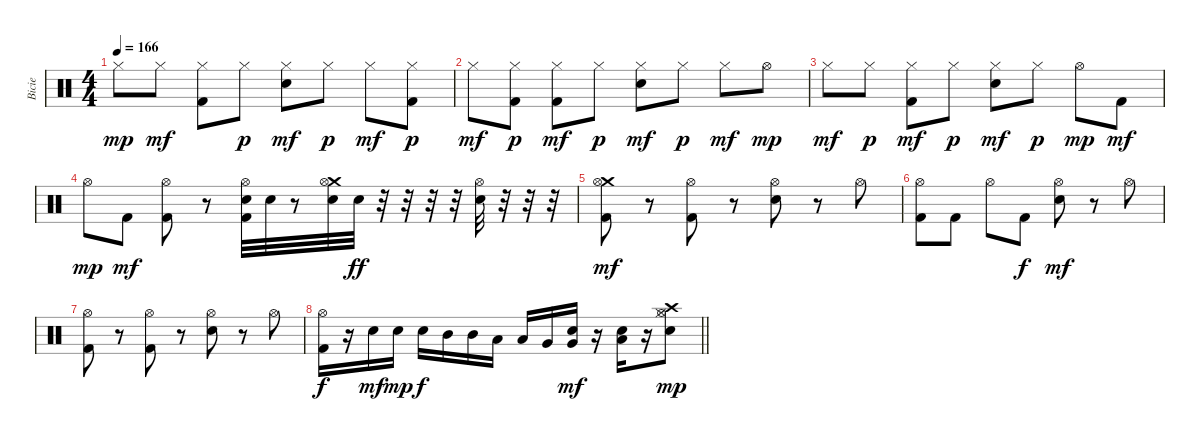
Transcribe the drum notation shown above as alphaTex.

\track ("Bicie" "Bicie") {instrument percussion}
\staff {score}
\articulation defaults
\ts (4 4)
\tempo 166
\clef neutral
\ks c "Hi-Hat (closed)".8{dy mp} "Hi-Hat (closed)".8{dy mf}
("Kick (hit) 2" "Hi-Hat (closed)").8 "Hi-Hat (closed)".8{dy p} ("Electric Snare (hit)" "Hi-Hat (closed)").8{dy mf} "Hi-Hat (closed)".8{dy p} "Hi-Hat (closed)".8{dy mf} ("Kick (hit) 2" "Hi-Hat (closed)").8{dy p} |
"Hi-Hat (closed)".8{dy mf} ("Kick (hit) 2" "Hi-Hat (closed)").8{dy p} ("Kick (hit) 2" "Hi-Hat (closed)").8{dy mf} "Hi-Hat (closed)".8{dy p} ("Electric Snare (hit)" "Hi-Hat (closed)").8{dy mf} "Hi-Hat (closed)".8{dy p} "Hi-Hat (closed)".8{dy mf} "Hi-Hat (open)".8{dy mp} |
"Hi-Hat (closed)".8{dy mf} "Hi-Hat (closed)".8{dy p} ("Kick (hit) 2" "Hi-Hat (closed)").8{dy mf} "Hi-Hat (closed)".8{dy p} ("Electric Snare (hit)" "Hi-Hat (closed)").8{dy mf} "Hi-Hat (closed)".8{dy p} "Hi-Hat (open)".8{dy mp} "Kick (hit) 2".8{dy mf} |
"Hi-Hat (open)".8{dy mp} "Kick (hit) 2".8{dy mf} ("Kick (hit) 2" "Hi-Hat (open)").8 r.8 ("Kick (hit) 2" "Electric Snare (hit)" "Hi-Hat (open)").32 "Electric Snare (hit)".32 r.8 ("Electric Snare (hit)" "Crash medium (hit)" "Hi-Hat (open)").32 "Electric Snare (hit)".32{dy ff} r.32 r.32 r.32 r.32 ("Electric Snare (hit)" "Hi-Hat (open)").32 r.32 r.32 r.32 |
("Crash medium (hit)" "Kick (hit) 2" "Hi-Hat (open)").8{dy mf} r.8 ("Kick (hit) 2" "Hi-Hat (open)").8 r.8 ("Electric Snare (hit)" "Hi-Hat (open)").8 r.8 "Hi-Hat (open)".8 |
("Kick (hit) 2" "Hi-Hat (open)").8 "Kick (hit) 2".8 "Hi-Hat (open)".8 "Kick (hit) 2".8{dy f} ("Electric Snare (hit)" "Hi-Hat (open)").8{dy mf} r.8 "Hi-Hat (open)".8 |
("Kick (hit) 2" "Hi-Hat (open)").8 r.8 ("Kick (hit) 2" "Hi-Hat (open)").8 r.8 ("Electric Snare (hit)" "Hi-Hat (open)").8 r.8 "Hi-Hat (open)".8 |
\barLineRight lightlight
("Hi-Hat (open)" "Kick (hit) 2").16{dy f} r.16 "Electric Snare (hit)".16{dy mf} "Electric Snare (hit)".16{dy mp} "Electric Snare (hit)".16{dy f} "Mid Tom (hit)".16 "Mid Tom (hit)".16 "Low Tom (hit)".16 "Low Tom (hit)".16 "Very Low Tom (hit)".16 ("Electric Snare (hit)" "Very Low Tom (hit)").16{dy mf} r.16 ("Electric Snare (hit)" "Low Tom (hit)").16 r.16 ("Hi-Hat (closed)" "Electric Snare (hit)" "Hi-Hat (open)" "Crash high (hit)").8{dy mp}
